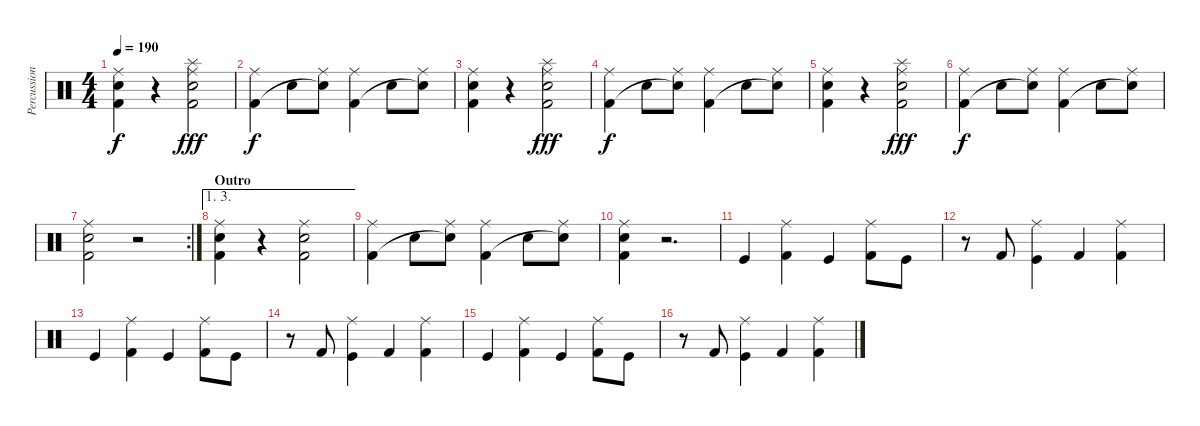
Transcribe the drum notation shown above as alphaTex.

\track ("Percussion" "Percussion") {instrument percussion}
\staff {score}
\articulation defaults
\ts (4 4)
\tempo 190
\clef neutral
\ks c
("Ride (middle)" "Electric Snare (hit)" "Kick (hit) 2").4{dy f} r.4 ("Ride (middle)" "Electric Snare (hit)" "Splash (hit)" "Kick (hit) 2").2{dy fff} |
("Ride (middle)" "Kick (hit) 2").4{dy f} "Electric Snare (hit)".8 ("Ride (middle)" "Electric Snare (hit)"{t}).8 ("Ride (middle)" "Kick (hit) 2").4 "Electric Snare (hit)".8 ("Ride (middle)" "Electric Snare (hit)"{t}).8 |
("Ride (middle)" "Electric Snare (hit)" "Kick (hit) 2").4 r.4 ("Ride (middle)" "Electric Snare (hit)" "Splash (hit)" "Kick (hit) 2").2{dy fff} |
("Ride (middle)" "Kick (hit) 2").4{dy f} "Electric Snare (hit)".8 ("Ride (middle)" "Electric Snare (hit)"{t}).8 ("Ride (middle)" "Kick (hit) 2").4 "Electric Snare (hit)".8 ("Ride (middle)" "Electric Snare (hit)"{t}).8 |
("Ride (middle)" "Electric Snare (hit)" "Kick (hit) 2").4 r.4 ("Ride (middle)" "Electric Snare (hit)" "Splash (hit)" "Kick (hit) 2").2{dy fff} |
("Ride (middle)" "Kick (hit) 2").4{dy f} "Electric Snare (hit)".8 ("Ride (middle)" "Electric Snare (hit)"{t}).8 ("Ride (middle)" "Kick (hit) 2").4 "Electric Snare (hit)".8 ("Ride (middle)" "Electric Snare (hit)"{t}).8 |
\rc 2
("Ride (middle)" "Electric Snare (hit)" "Kick (hit) 2").2 r.2 |
\ae (1 3)
\section ("" "Outro")
("Ride (middle)" "Electric Snare (hit)" "Kick (hit) 2").4 r.4 ("Ride (middle)" "Electric Snare (hit)" "Kick (hit) 2").2 |
("Ride (middle)" "Kick (hit) 2").4 "Electric Snare (hit)".8 ("Ride (middle)" "Electric Snare (hit)"{t}).8 ("Ride (middle)" "Kick (hit) 2").4 "Electric Snare (hit)".8 ("Ride (middle)" "Electric Snare (hit)"{t}).8 |
("Ride (middle)" "Electric Snare (hit)" "Kick (hit) 2").4 r.2{d} |
"Kick (hit)".4 ("Ride (middle)" "Kick (hit) 2").4 "Kick (hit)".4 ("Ride (middle)" "Kick (hit) 2").8 "Kick (hit)".8 |
r.8 "Kick (hit) 2".8 ("Ride (middle)" "Kick (hit)").4 "Kick (hit) 2".4 ("Ride (middle)" "Kick (hit) 2").4 |
"Kick (hit)".4 ("Ride (middle)" "Kick (hit) 2").4 "Kick (hit)".4 ("Ride (middle)" "Kick (hit) 2").8 "Kick (hit)".8 |
r.8 "Kick (hit) 2".8 ("Ride (middle)" "Kick (hit)").4 "Kick (hit) 2".4 ("Ride (middle)" "Kick (hit) 2").4 |
"Kick (hit)".4 ("Ride (middle)" "Kick (hit) 2").4 "Kick (hit)".4 ("Ride (middle)" "Kick (hit) 2").8 "Kick (hit)".8 |
r.8 "Kick (hit) 2".8 ("Ride (middle)" "Kick (hit)").4 "Kick (hit) 2".4 ("Ride (middle)" "Kick (hit) 2").4
